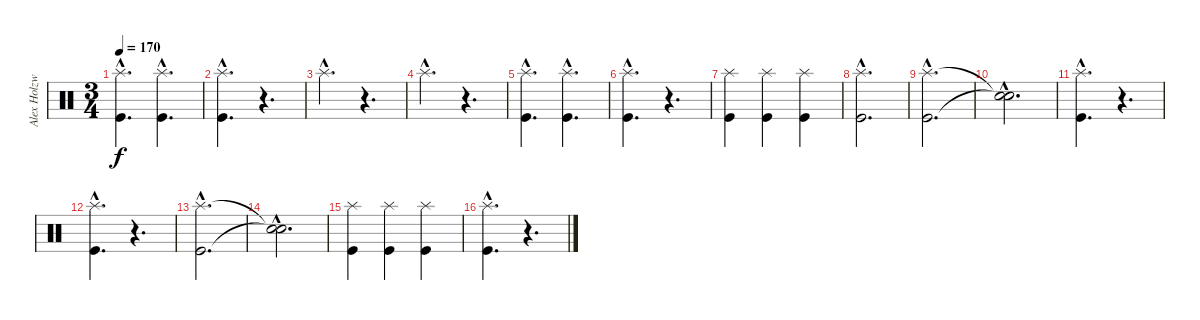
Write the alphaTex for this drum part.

\track ("Alex Holzwarth - Drums" "Alex Holzw") {instrument percussion}
\staff {score}
\articulation defaults
\ts (3 4)
\tempo 170
\clef neutral
\ks c
("Splash (hit)"{hac} "Kick (hit)"{hac}).4{d dy f} ("Splash (hit)"{hac} "Kick (hit)"{hac}).4{d} |
("Splash (hit)"{hac} "Kick (hit)"{hac}).4{d} r.4{d} |
"Splash (hit)"{hac}.4{d} r.4{d} |
"Splash (hit)"{hac}.4{d} r.4{d} |
("Splash (hit)"{hac} "Kick (hit)"{hac}).4{d} ("Splash (hit)"{hac} "Kick (hit)"{hac}).4{d} |
("Splash (hit)"{hac} "Kick (hit)"{hac}).4{d} r.4{d} |
("Splash (hit)" "Kick (hit)").4 ("Splash (hit)" "Kick (hit)").4 ("Splash (hit)" "Kick (hit)").4 |
("Splash (hit)"{hac} "Kick (hit)"{hac}).2{d} |
("Splash (hit)"{hac} "Kick (hit)"{hac}).2{d} |
("Snare (hit)"{hac t} "Snare (hit)"{hac t}).2{d} |
("Splash (hit)"{hac} "Kick (hit)"{hac}).4{d} r.4{d} |
("Splash (hit)"{hac} "Kick (hit)"{hac}).4{d} r.4{d} |
("Splash (hit)"{hac} "Kick (hit)"{hac}).2{d} |
("Snare (hit)"{hac t} "Snare (hit)"{hac t}).2{d} |
("Splash (hit)" "Kick (hit)").4 ("Splash (hit)" "Kick (hit)").4 ("Splash (hit)" "Kick (hit)").4 |
("Splash (hit)"{hac} "Kick (hit)"{hac}).4{d} r.4{d volume 0}
